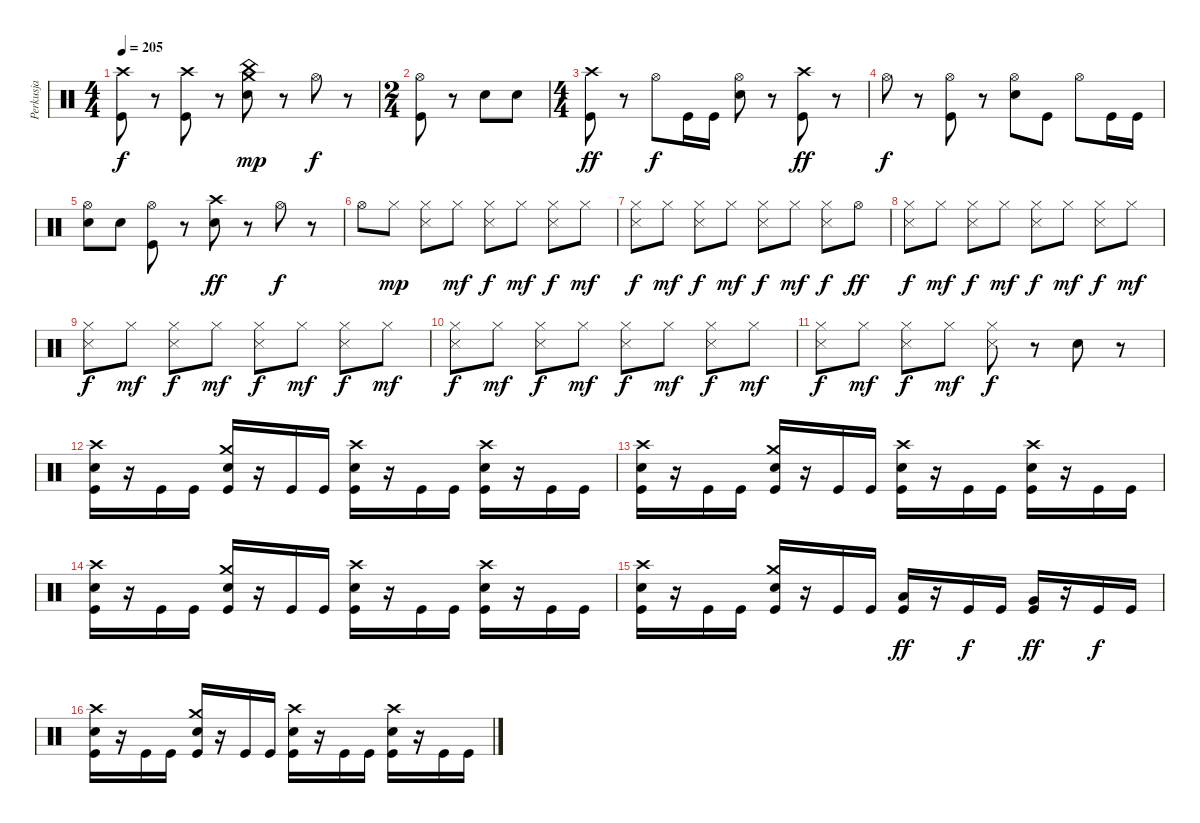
\track ("Perkusja" "Perkusja") {instrument percussion}
\staff {score}
\articulation defaults
\ts (4 4)
\tempo 205
\clef neutral
\ks c
("Crash high (hit)" "Kick (hit)").8{dy f} r.8 ("Crash high (hit)" "Kick (hit)").8 r.8 ("Crash medium (hit)" "China (hit)" "Snare (hit) 2").8{dy mp} r.8 "Hi-Hat (open)".8{dy f} r.8 |
\ts (2 4)
("Hi-Hat (open)" "Kick (hit)").8 r.8 "Snare (hit) 2".8 "Snare (hit) 2".8 |
\ts (4 4)
("Crash high (hit)" "Kick (hit)").8{dy ff} r.8 "Hi-Hat (open)".8{dy f} "Kick (hit)".16 "Kick (hit)".16 ("Hi-Hat (open)" "Snare (hit) 2").8 r.8 ("Crash high (hit)" "Kick (hit)").8{dy ff} r.8 |
"Hi-Hat (open)".8{dy f} r.8 ("Hi-Hat (open)" "Kick (hit)").8 r.8 ("Hi-Hat (open)" "Snare (hit) 2").8 "Kick (hit)".8 "Hi-Hat (open)".8 "Kick (hit)".16 "Kick (hit)".16 |
("Hi-Hat (open)" "Snare (hit) 2").8 "Snare (hit) 2".8 ("Hi-Hat (open)" "Kick (hit)").8 r.8 ("Crash high (hit)" "Snare (hit) 2").8{dy ff} r.8 "Hi-Hat (open)".8{dy f} r.8 |
"Hi-Hat (open)".8 "Hi-Hat (closed)".8{dy mp} ("Snare (side stick) 3" "Hi-Hat (closed)").8 "Hi-Hat (closed)".8{dy mf} ("Snare (side stick) 3" "Hi-Hat (closed)").8{dy f} "Hi-Hat (closed)".8{dy mf} ("Snare (side stick) 3" "Hi-Hat (closed)").8{dy f} "Hi-Hat (closed)".8{dy mf} |
("Snare (side stick) 3" "Hi-Hat (closed)").8{dy f} "Hi-Hat (closed)".8{dy mf} ("Snare (side stick) 3" "Hi-Hat (closed)").8{dy f} "Hi-Hat (closed)".8{dy mf} ("Snare (side stick) 3" "Hi-Hat (closed)").8{dy f} "Hi-Hat (closed)".8{dy mf} ("Snare (side stick) 3" "Hi-Hat (closed)").8{dy f} "Hi-Hat (open)".8{dy ff} |
("Snare (side stick) 3" "Hi-Hat (closed)").8{dy f} "Hi-Hat (closed)".8{dy mf} ("Snare (side stick) 3" "Hi-Hat (closed)").8{dy f} "Hi-Hat (closed)".8{dy mf} ("Snare (side stick) 3" "Hi-Hat (closed)").8{dy f} "Hi-Hat (closed)".8{dy mf} ("Snare (side stick) 3" "Hi-Hat (closed)").8{dy f} "Hi-Hat (closed)".8{dy mf} |
("Snare (side stick) 3" "Hi-Hat (closed)").8{dy f} "Hi-Hat (closed)".8{dy mf} ("Snare (side stick) 3" "Hi-Hat (closed)").8{dy f} "Hi-Hat (closed)".8{dy mf} ("Snare (side stick) 3" "Hi-Hat (closed)").8{dy f} "Hi-Hat (closed)".8{dy mf} ("Snare (side stick) 3" "Hi-Hat (closed)").8{dy f} "Hi-Hat (closed)".8{dy mf} |
("Snare (side stick) 3" "Hi-Hat (closed)").8{dy f} "Hi-Hat (closed)".8{dy mf} ("Snare (side stick) 3" "Hi-Hat (closed)").8{dy f} "Hi-Hat (closed)".8{dy mf} ("Snare (side stick) 3" "Hi-Hat (closed)").8{dy f} "Hi-Hat (closed)".8{dy mf} ("Snare (side stick) 3" "Hi-Hat (closed)").8{dy f} "Hi-Hat (closed)".8{dy mf} |
("Snare (side stick) 3" "Hi-Hat (closed)").8{dy f} "Hi-Hat (closed)".8{dy mf} ("Snare (side stick) 3" "Hi-Hat (closed)").8{dy f} "Hi-Hat (closed)".8{dy mf} ("Snare (side stick) 3" "Hi-Hat (closed)").8{dy f} r.8 "Snare (hit) 2".8 r.8 |
("Crash high (hit)" "Snare (hit) 2" "Kick (hit)").16 r.16 "Kick (hit)".16 "Kick (hit)".16 ("Crash medium (hit)" "Snare (hit) 2" "Kick (hit)").16 r.16 "Kick (hit)".16 "Kick (hit)".16 ("Crash high (hit)" "Snare (hit) 2" "Kick (hit)").16 r.16 "Kick (hit)".16 "Kick (hit)".16 ("Crash high (hit)" "Snare (hit) 2" "Kick (hit)").16 r.16 "Kick (hit)".16 "Kick (hit)".16 |
("Crash high (hit)" "Snare (hit) 2" "Kick (hit)").16 r.16 "Kick (hit)".16 "Kick (hit)".16 ("Crash medium (hit)" "Snare (hit) 2" "Kick (hit)").16 r.16 "Kick (hit)".16 "Kick (hit)".16 ("Crash high (hit)" "Snare (hit) 2" "Kick (hit)").16 r.16 "Kick (hit)".16 "Kick (hit)".16 ("Crash high (hit)" "Snare (hit) 2" "Kick (hit)").16 r.16 "Kick (hit)".16 "Kick (hit)".16 |
("Crash high (hit)" "Snare (hit) 2" "Kick (hit)").16 r.16 "Kick (hit)".16 "Kick (hit)".16 ("Crash medium (hit)" "Snare (hit) 2" "Kick (hit)").16 r.16 "Kick (hit)".16 "Kick (hit)".16 ("Crash high (hit)" "Snare (hit) 2" "Kick (hit)").16 r.16 "Kick (hit)".16 "Kick (hit)".16 ("Crash high (hit)" "Snare (hit) 2" "Kick (hit)").16 r.16 "Kick (hit)".16 "Kick (hit)".16 |
("Crash high (hit)" "Snare (hit) 2" "Kick (hit)").16 r.16 "Kick (hit)".16 "Kick (hit)".16 ("Crash medium (hit)" "Snare (hit) 2" "Kick (hit)").16 r.16 "Kick (hit)".16 "Kick (hit)".16 ("Low Tom (hit)" "Kick (hit)").16{dy ff} r.16 "Kick (hit)".16{dy f} "Kick (hit)".16 ("Very Low Tom (hit)" "Kick (hit)").16{dy ff} r.16 "Kick (hit)".16{dy f} "Kick (hit)".16 |
("Crash high (hit)" "Snare (hit) 2" "Kick (hit)").16 r.16 "Kick (hit)".16 "Kick (hit)".16 ("Crash medium (hit)" "Snare (hit) 2" "Kick (hit)").16 r.16 "Kick (hit)".16 "Kick (hit)".16 ("Crash high (hit)" "Snare (hit) 2" "Kick (hit)").16 r.16 "Kick (hit)".16 "Kick (hit)".16 ("Crash high (hit)" "Snare (hit) 2" "Kick (hit)").16 r.16 "Kick (hit)".16 "Kick (hit)".16
